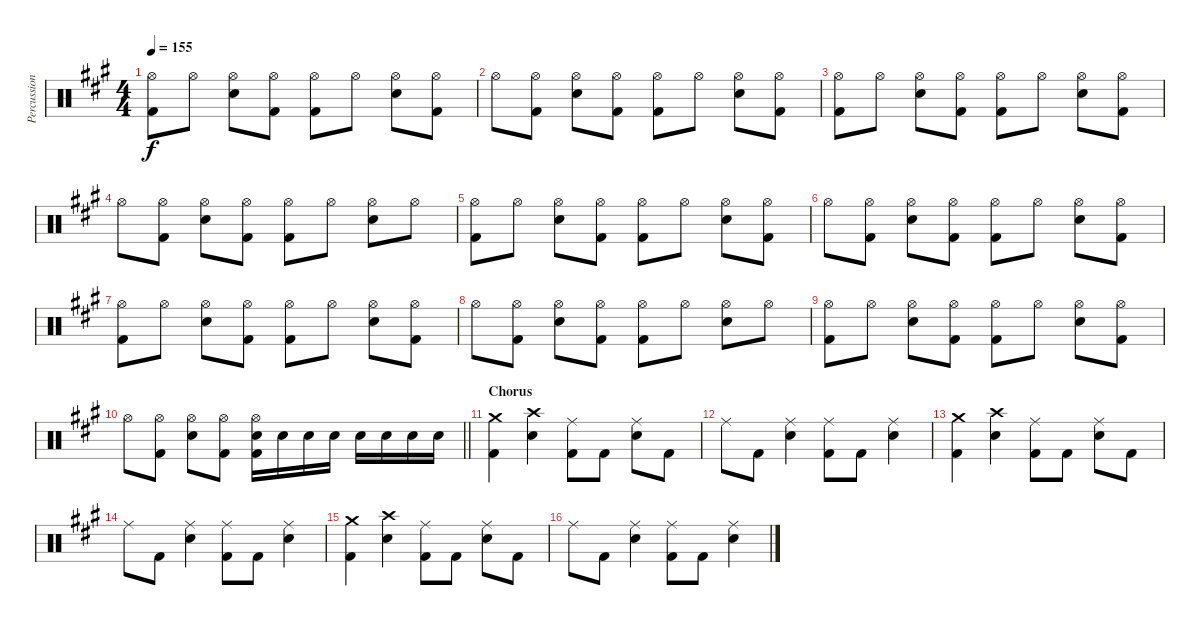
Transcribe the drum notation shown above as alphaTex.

\track ("Percussion" "Percussion") {instrument percussion}
\staff {score}
\articulation defaults
\ts (4 4)
\tempo 155
\clef neutral
\ks a
("Hi-Hat (open)" "Kick (hit) 2").8{dy f} "Hi-Hat (open)".8 ("Hi-Hat (open)" "Electric Snare (hit)").8 ("Hi-Hat (open)" "Kick (hit) 2").8 ("Hi-Hat (open)" "Kick (hit) 2").8 "Hi-Hat (open)".8 ("Hi-Hat (open)" "Electric Snare (hit)").8 ("Hi-Hat (open)" "Kick (hit) 2").8 |
"Hi-Hat (open)".8 ("Hi-Hat (open)" "Kick (hit) 2").8 ("Hi-Hat (open)" "Electric Snare (hit)").8 ("Hi-Hat (open)" "Kick (hit) 2").8 ("Hi-Hat (open)" "Kick (hit) 2").8 "Hi-Hat (open)".8 ("Hi-Hat (open)" "Electric Snare (hit)").8 ("Hi-Hat (open)" "Kick (hit) 2").8 |
("Hi-Hat (open)" "Kick (hit) 2").8 "Hi-Hat (open)".8 ("Hi-Hat (open)" "Electric Snare (hit)").8 ("Hi-Hat (open)" "Kick (hit) 2").8 ("Hi-Hat (open)" "Kick (hit) 2").8 "Hi-Hat (open)".8 ("Hi-Hat (open)" "Electric Snare (hit)").8 ("Hi-Hat (open)" "Kick (hit) 2").8 |
"Hi-Hat (open)".8 ("Hi-Hat (open)" "Kick (hit) 2").8 ("Hi-Hat (open)" "Electric Snare (hit)").8 ("Hi-Hat (open)" "Kick (hit) 2").8 ("Hi-Hat (open)" "Kick (hit) 2").8 "Hi-Hat (open)".8 ("Hi-Hat (open)" "Electric Snare (hit)").8 "Hi-Hat (open)".8 |
("Hi-Hat (open)" "Kick (hit) 2").8 "Hi-Hat (open)".8 ("Hi-Hat (open)" "Electric Snare (hit)").8 ("Hi-Hat (open)" "Kick (hit) 2").8 ("Hi-Hat (open)" "Kick (hit) 2").8 "Hi-Hat (open)".8 ("Hi-Hat (open)" "Electric Snare (hit)").8 ("Hi-Hat (open)" "Kick (hit) 2").8 |
"Hi-Hat (open)".8 ("Hi-Hat (open)" "Kick (hit) 2").8 ("Hi-Hat (open)" "Electric Snare (hit)").8 ("Hi-Hat (open)" "Kick (hit) 2").8 ("Hi-Hat (open)" "Kick (hit) 2").8 "Hi-Hat (open)".8 ("Hi-Hat (open)" "Electric Snare (hit)").8 ("Hi-Hat (open)" "Kick (hit) 2").8 |
("Hi-Hat (open)" "Kick (hit) 2").8 "Hi-Hat (open)".8 ("Hi-Hat (open)" "Electric Snare (hit)").8 ("Hi-Hat (open)" "Kick (hit) 2").8 ("Hi-Hat (open)" "Kick (hit) 2").8 "Hi-Hat (open)".8 ("Hi-Hat (open)" "Electric Snare (hit)").8 ("Hi-Hat (open)" "Kick (hit) 2").8 |
"Hi-Hat (open)".8 ("Hi-Hat (open)" "Kick (hit) 2").8 ("Hi-Hat (open)" "Electric Snare (hit)").8 ("Hi-Hat (open)" "Kick (hit) 2").8 ("Hi-Hat (open)" "Kick (hit) 2").8 "Hi-Hat (open)".8 ("Hi-Hat (open)" "Electric Snare (hit)").8 "Hi-Hat (open)".8 |
("Hi-Hat (open)" "Kick (hit) 2").8 "Hi-Hat (open)".8 ("Hi-Hat (open)" "Electric Snare (hit)").8 ("Hi-Hat (open)" "Kick (hit) 2").8 ("Hi-Hat (open)" "Kick (hit) 2").8 "Hi-Hat (open)".8 ("Hi-Hat (open)" "Electric Snare (hit)").8 ("Hi-Hat (open)" "Kick (hit) 2").8 |
\barLineRight lightlight "Hi-Hat (open)".8
("Hi-Hat (open)" "Kick (hit) 2").8 ("Hi-Hat (open)" "Electric Snare (hit)").8 ("Hi-Hat (open)" "Kick (hit) 2").8 ("Hi-Hat (open)" "Electric Snare (hit)" "Kick (hit) 2").16 "Electric Snare (hit)".16 "Electric Snare (hit)".16 "Electric Snare (hit)".16 "Electric Snare (hit)".16 "Electric Snare (hit)".16 "Electric Snare (hit)".16 "Electric Snare (hit)".16 |
\section ("" "Chorus")
("Crash medium (hit)" "Kick (hit) 2").4 ("Crash high (hit)" "Electric Snare (hit)").4 ("Ride (middle)" "Kick (hit) 2").8 "Kick (hit) 2".8 ("Ride (middle)" "Electric Snare (hit)").8 "Kick (hit) 2".8 |
"Ride (middle)".8 "Kick (hit) 2".8 ("Ride (middle)" "Electric Snare (hit)").4 ("Ride (middle)" "Kick (hit) 2").8 "Kick (hit) 2".8 ("Ride (middle)" "Electric Snare (hit)").4 |
("Crash medium (hit)" "Kick (hit) 2").4 ("Crash high (hit)" "Electric Snare (hit)").4 ("Ride (middle)" "Kick (hit) 2").8 "Kick (hit) 2".8 ("Ride (middle)" "Electric Snare (hit)").8 "Kick (hit) 2".8 |
"Ride (middle)".8 "Kick (hit) 2".8 ("Ride (middle)" "Electric Snare (hit)").4 ("Ride (middle)" "Kick (hit) 2").8 "Kick (hit) 2".8 ("Ride (middle)" "Electric Snare (hit)").4 |
("Crash medium (hit)" "Kick (hit) 2").4 ("Crash high (hit)" "Electric Snare (hit)").4 ("Ride (middle)" "Kick (hit) 2").8 "Kick (hit) 2".8 ("Ride (middle)" "Electric Snare (hit)").8 "Kick (hit) 2".8 |
"Ride (middle)".8 "Kick (hit) 2".8 ("Ride (middle)" "Electric Snare (hit)").4 ("Ride (middle)" "Kick (hit) 2").8 "Kick (hit) 2".8 ("Ride (middle)" "Electric Snare (hit)").4
